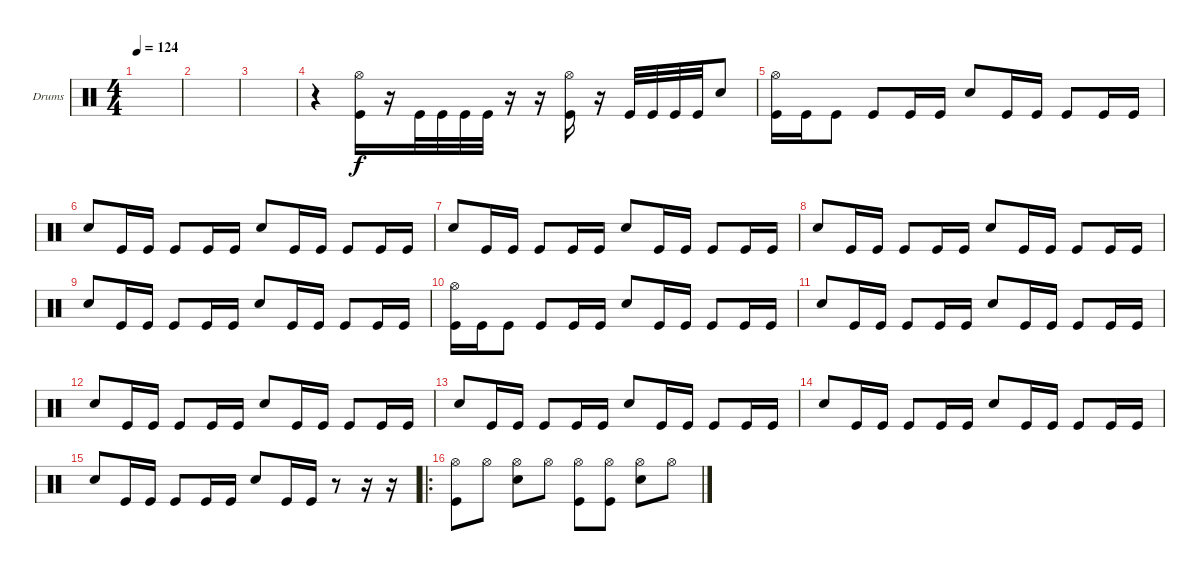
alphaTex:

\defaultSystemsLayout 4
\bracketExtendMode groupsimilarinstruments
\firstSystemTrackNameOrientation horizontal
\otherSystemsTrackNameOrientation horizontal
\track ("Drumkit" "Drums") {solo instrument percussion}
\staff {score}
\articulation defaults
\ts (4 4)
\tempo 124
\clef neutral
\ks c
|
|
|
r.4 ("Hi-Hat (open)" "Kick (hit)").16 r.16 "Kick (hit)".32 "Kick (hit)".32 "Kick (hit)".32 "Kick (hit)".32 r.16 r.16 ("Hi-Hat (open)" "Kick (hit)").16 r.16 "Kick (hit)".32 "Kick (hit)".32 "Kick (hit)".32 "Kick (hit)".32 "Snare (hit) 2".8 |
("Kick (hit)" "Hi-Hat (open)").16 "Kick (hit)".16 "Kick (hit)".8 "Kick (hit)".8 "Kick (hit)".16 "Kick (hit)".16 "Snare (hit) 2".8 "Kick (hit)".16 "Kick (hit)".16 "Kick (hit)".8 "Kick (hit)".16 "Kick (hit)".16 |
"Snare (hit) 2".8 "Kick (hit)".16 "Kick (hit)".16 "Kick (hit)".8 "Kick (hit)".16 "Kick (hit)".16 "Snare (hit) 2".8 "Kick (hit)".16 "Kick (hit)".16 "Kick (hit)".8 "Kick (hit)".16 "Kick (hit)".16 |
"Snare (hit) 2".8 "Kick (hit)".16 "Kick (hit)".16 "Kick (hit)".8 "Kick (hit)".16 "Kick (hit)".16 "Snare (hit) 2".8 "Kick (hit)".16 "Kick (hit)".16 "Kick (hit)".8 "Kick (hit)".16 "Kick (hit)".16 |
"Snare (hit) 2".8 "Kick (hit)".16 "Kick (hit)".16 "Kick (hit)".8 "Kick (hit)".16 "Kick (hit)".16 "Snare (hit) 2".8 "Kick (hit)".16 "Kick (hit)".16 "Kick (hit)".8 "Kick (hit)".16 "Kick (hit)".16 |
"Snare (hit) 2".8 "Kick (hit)".16 "Kick (hit)".16 "Kick (hit)".8 "Kick (hit)".16 "Kick (hit)".16 "Snare (hit) 2".8 "Kick (hit)".16 "Kick (hit)".16 "Kick (hit)".8 "Kick (hit)".16 "Kick (hit)".16 |
("Kick (hit)" "Hi-Hat (open)").16 "Kick (hit)".16 "Kick (hit)".8 "Kick (hit)".8 "Kick (hit)".16 "Kick (hit)".16 "Snare (hit) 2".8 "Kick (hit)".16 "Kick (hit)".16 "Kick (hit)".8 "Kick (hit)".16 "Kick (hit)".16 |
"Snare (hit) 2".8 "Kick (hit)".16 "Kick (hit)".16 "Kick (hit)".8 "Kick (hit)".16 "Kick (hit)".16 "Snare (hit) 2".8 "Kick (hit)".16 "Kick (hit)".16 "Kick (hit)".8 "Kick (hit)".16 "Kick (hit)".16 |
"Snare (hit) 2".8 "Kick (hit)".16 "Kick (hit)".16 "Kick (hit)".8 "Kick (hit)".16 "Kick (hit)".16 "Snare (hit) 2".8 "Kick (hit)".16 "Kick (hit)".16 "Kick (hit)".8 "Kick (hit)".16 "Kick (hit)".16 |
"Snare (hit) 2".8 "Kick (hit)".16 "Kick (hit)".16 "Kick (hit)".8 "Kick (hit)".16 "Kick (hit)".16 "Snare (hit) 2".8 "Kick (hit)".16 "Kick (hit)".16 "Kick (hit)".8 "Kick (hit)".16 "Kick (hit)".16 |
"Snare (hit) 2".8 "Kick (hit)".16 "Kick (hit)".16 "Kick (hit)".8 "Kick (hit)".16 "Kick (hit)".16 "Snare (hit) 2".8 "Kick (hit)".16 "Kick (hit)".16 "Kick (hit)".8 "Kick (hit)".16 "Kick (hit)".16 |
"Snare (hit) 2".8 "Kick (hit)".16 "Kick (hit)".16 "Kick (hit)".8 "Kick (hit)".16 "Kick (hit)".16 "Snare (hit) 2".8 "Kick (hit)".16 "Kick (hit)".16 r.8 r.16 r.16 |
\ro
("Kick (hit)" "Hi-Hat (open)").8 "Hi-Hat (open)".8 ("Hi-Hat (open)" "Snare (hit) 2").8 "Hi-Hat (open)".8 ("Hi-Hat (open)" "Kick (hit)").8 ("Hi-Hat (open)" "Kick (hit)").8 ("Hi-Hat (open)" "Snare (hit) 2").8 "Hi-Hat (open)".8
